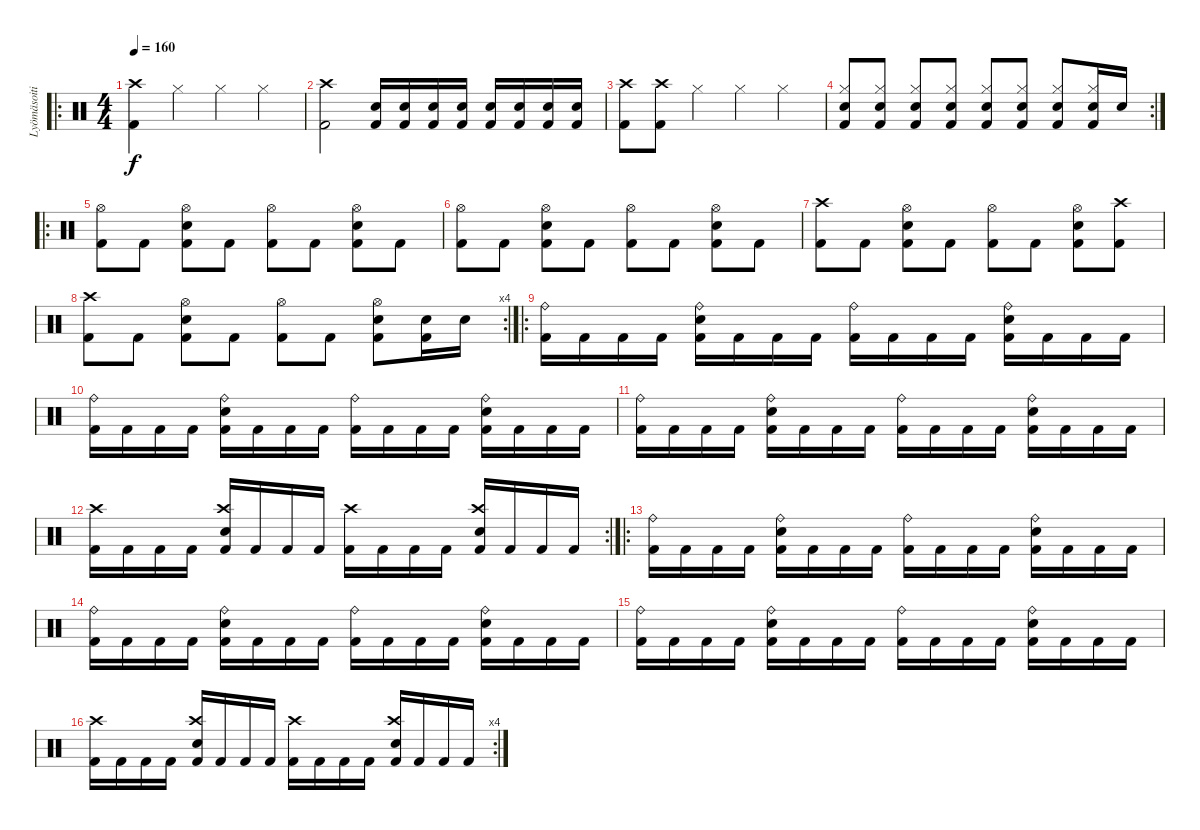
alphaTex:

\track ("Lyömäsoitin" "Lyömäsoiti") {instrument percussion}
\staff {score}
\articulation defaults
\ro
\ts (4 4)
\tempo 160
\clef neutral
\ks c
("Kick (hit) 2" "Crash high (hit)").4{dy f} "Hi-Hat (closed)".4 "Hi-Hat (closed)".4 "Hi-Hat (closed)".4 |
("Kick (hit) 2" "Crash high (hit)").2 ("Electric Snare (hit)" "Kick (hit) 2").16 ("Electric Snare (hit)" "Kick (hit) 2").16 ("Electric Snare (hit)" "Kick (hit) 2").16 ("Electric Snare (hit)" "Kick (hit) 2").16 ("Electric Snare (hit)" "Kick (hit) 2").16 ("Electric Snare (hit)" "Kick (hit) 2").16 ("Electric Snare (hit)" "Kick (hit) 2").16 ("Electric Snare (hit)" "Kick (hit) 2").16 |
("Kick (hit) 2" "Crash high (hit)").8 ("Kick (hit) 2" "Crash high (hit)").8 "Hi-Hat (closed)".4 "Hi-Hat (closed)".4 "Hi-Hat (closed)".4 |
\rc 2
("Kick (hit) 2" "Hi-Hat (closed)" "Electric Snare (hit)").8 ("Kick (hit) 2" "Hi-Hat (closed)" "Electric Snare (hit)").8 ("Kick (hit) 2" "Hi-Hat (closed)" "Electric Snare (hit)").8 ("Kick (hit) 2" "Hi-Hat (closed)" "Electric Snare (hit)").8 ("Kick (hit) 2" "Hi-Hat (closed)" "Electric Snare (hit)").8 ("Kick (hit) 2" "Hi-Hat (closed)" "Electric Snare (hit)").8 ("Kick (hit) 2" "Hi-Hat (closed)" "Electric Snare (hit)").8 ("Kick (hit) 2" "Hi-Hat (closed)" "Electric Snare (hit)").16 "Electric Snare (hit)".16 |
\ro
("Kick (hit) 2" "Hi-Hat (open)").8 "Kick (hit) 2".8 ("Kick (hit) 2" "Hi-Hat (open)" "Electric Snare (hit)").8 "Kick (hit) 2".8 ("Kick (hit) 2" "Hi-Hat (open)").8 "Kick (hit) 2".8 ("Kick (hit) 2" "Hi-Hat (open)" "Electric Snare (hit)").8 "Kick (hit) 2".8 |
("Kick (hit) 2" "Hi-Hat (open)").8 "Kick (hit) 2".8 ("Kick (hit) 2" "Hi-Hat (open)" "Electric Snare (hit)").8 "Kick (hit) 2".8 ("Kick (hit) 2" "Hi-Hat (open)").8 "Kick (hit) 2".8 ("Kick (hit) 2" "Hi-Hat (open)" "Electric Snare (hit)").8 "Kick (hit) 2".8 |
("Kick (hit) 2" "Crash high (hit)").8 "Kick (hit) 2".8 ("Kick (hit) 2" "Hi-Hat (open)" "Electric Snare (hit)").8 "Kick (hit) 2".8 ("Kick (hit) 2" "Hi-Hat (open)").8 "Kick (hit) 2".8 ("Kick (hit) 2" "Hi-Hat (open)" "Electric Snare (hit)").8 ("Kick (hit) 2" "Crash high (hit)").8 |
\rc 4
("Kick (hit) 2" "Crash high (hit)").8 "Kick (hit) 2".8 ("Kick (hit) 2" "Hi-Hat (open)" "Electric Snare (hit)").8 "Kick (hit) 2".8 ("Kick (hit) 2" "Hi-Hat (open)").8 "Kick (hit) 2".8 ("Kick (hit) 2" "Hi-Hat (open)" "Electric Snare (hit)").8 ("Kick (hit) 2" "Electric Snare (hit)").16 "Electric Snare (hit)".16 |
\ro
("Kick (hit) 2" "Ride (bell)").16 "Kick (hit) 2".16 "Kick (hit) 2".16 "Kick (hit) 2".16 ("Kick (hit) 2" "Ride (bell)" "Electric Snare (hit)").16 "Kick (hit) 2".16 "Kick (hit) 2".16 "Kick (hit) 2".16 ("Kick (hit) 2" "Ride (bell)").16 "Kick (hit) 2".16 "Kick (hit) 2".16 "Kick (hit) 2".16 ("Kick (hit) 2" "Ride (bell)" "Electric Snare (hit)").16 "Kick (hit) 2".16 "Kick (hit) 2".16 "Kick (hit) 2".16 |
("Kick (hit) 2" "Ride (bell)").16 "Kick (hit) 2".16 "Kick (hit) 2".16 "Kick (hit) 2".16 ("Kick (hit) 2" "Ride (bell)" "Electric Snare (hit)").16 "Kick (hit) 2".16 "Kick (hit) 2".16 "Kick (hit) 2".16 ("Kick (hit) 2" "Ride (bell)").16 "Kick (hit) 2".16 "Kick (hit) 2".16 "Kick (hit) 2".16 ("Kick (hit) 2" "Ride (bell)" "Electric Snare (hit)").16 "Kick (hit) 2".16 "Kick (hit) 2".16 "Kick (hit) 2".16 |
("Kick (hit) 2" "Ride (bell)").16 "Kick (hit) 2".16 "Kick (hit) 2".16 "Kick (hit) 2".16 ("Kick (hit) 2" "Ride (bell)" "Electric Snare (hit)").16 "Kick (hit) 2".16 "Kick (hit) 2".16 "Kick (hit) 2".16 ("Kick (hit) 2" "Ride (bell)").16 "Kick (hit) 2".16 "Kick (hit) 2".16 "Kick (hit) 2".16 ("Kick (hit) 2" "Ride (bell)" "Electric Snare (hit)").16 "Kick (hit) 2".16 "Kick (hit) 2".16 "Kick (hit) 2".16 |
\rc 2
("Kick (hit) 2" "Crash high (hit)").16 "Kick (hit) 2".16 "Kick (hit) 2".16 "Kick (hit) 2".16 ("Kick (hit) 2" "Crash high (hit)" "Electric Snare (hit)").16 "Kick (hit) 2".16 "Kick (hit) 2".16 "Kick (hit) 2".16 ("Kick (hit) 2" "Crash high (hit)").16 "Kick (hit) 2".16 "Kick (hit) 2".16 "Kick (hit) 2".16 ("Kick (hit) 2" "Crash high (hit)" "Electric Snare (hit)").16 "Kick (hit) 2".16 "Kick (hit) 2".16 "Kick (hit) 2".16 |
\ro
("Kick (hit) 2" "Ride (bell)").16 "Kick (hit) 2".16 "Kick (hit) 2".16 "Kick (hit) 2".16 ("Kick (hit) 2" "Ride (bell)" "Electric Snare (hit)").16 "Kick (hit) 2".16 "Kick (hit) 2".16 "Kick (hit) 2".16 ("Kick (hit) 2" "Ride (bell)").16 "Kick (hit) 2".16 "Kick (hit) 2".16 "Kick (hit) 2".16 ("Kick (hit) 2" "Ride (bell)" "Electric Snare (hit)").16 "Kick (hit) 2".16 "Kick (hit) 2".16 "Kick (hit) 2".16 |
("Kick (hit) 2" "Ride (bell)").16 "Kick (hit) 2".16 "Kick (hit) 2".16 "Kick (hit) 2".16 ("Kick (hit) 2" "Ride (bell)" "Electric Snare (hit)").16 "Kick (hit) 2".16 "Kick (hit) 2".16 "Kick (hit) 2".16 ("Kick (hit) 2" "Ride (bell)").16 "Kick (hit) 2".16 "Kick (hit) 2".16 "Kick (hit) 2".16 ("Kick (hit) 2" "Ride (bell)" "Electric Snare (hit)").16 "Kick (hit) 2".16 "Kick (hit) 2".16 "Kick (hit) 2".16 |
("Kick (hit) 2" "Ride (bell)").16 "Kick (hit) 2".16 "Kick (hit) 2".16 "Kick (hit) 2".16 ("Kick (hit) 2" "Ride (bell)" "Electric Snare (hit)").16 "Kick (hit) 2".16 "Kick (hit) 2".16 "Kick (hit) 2".16 ("Kick (hit) 2" "Ride (bell)").16 "Kick (hit) 2".16 "Kick (hit) 2".16 "Kick (hit) 2".16 ("Kick (hit) 2" "Ride (bell)" "Electric Snare (hit)").16 "Kick (hit) 2".16 "Kick (hit) 2".16 "Kick (hit) 2".16 |
\rc 4
("Kick (hit) 2" "Crash high (hit)").16 "Kick (hit) 2".16 "Kick (hit) 2".16 "Kick (hit) 2".16 ("Kick (hit) 2" "Crash high (hit)" "Electric Snare (hit)").16 "Kick (hit) 2".16 "Kick (hit) 2".16 "Kick (hit) 2".16 ("Kick (hit) 2" "Crash high (hit)").16 "Kick (hit) 2".16 "Kick (hit) 2".16 "Kick (hit) 2".16 ("Kick (hit) 2" "Crash high (hit)" "Electric Snare (hit)").16 "Kick (hit) 2".16 "Kick (hit) 2".16 "Kick (hit) 2".16
